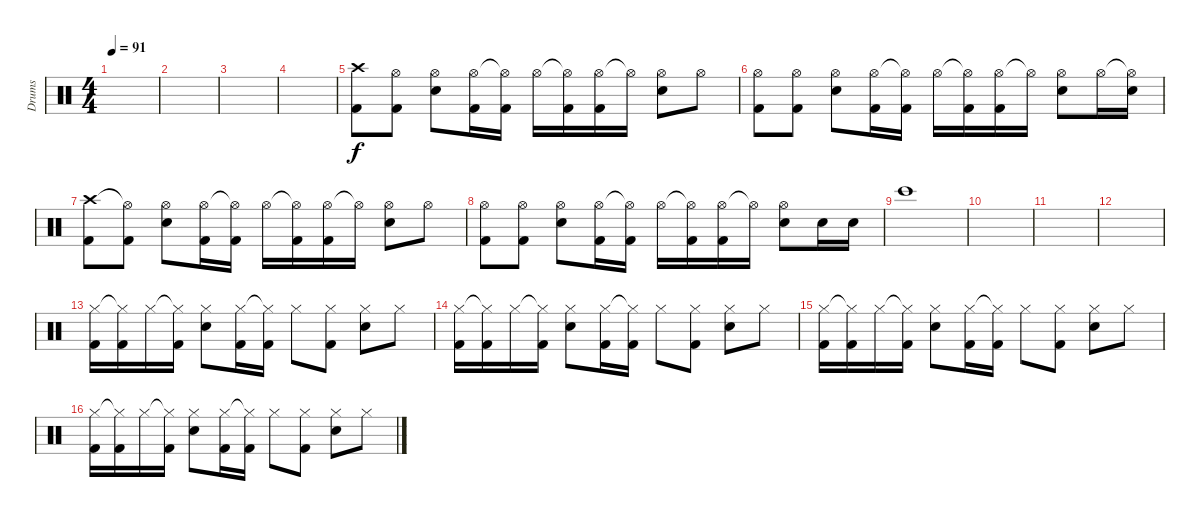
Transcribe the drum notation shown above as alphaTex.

\track ("Drums" "Drums") {instrument percussion}
\staff {score}
\articulation defaults
\ts (4 4)
\tempo 91
\clef neutral
\ks c
|
|
|
|
("Crash high (hit)" "Kick (hit) 2").8 ("Hi-Hat (open)" "Kick (hit) 2").8 ("Hi-Hat (open)" "Electric Snare (hit)").8 ("Hi-Hat (open)" "Kick (hit) 2").16 ("Hi-Hat (open)"{t} "Kick (hit) 2").16 "Hi-Hat (open)".16 ("Hi-Hat (open)"{t} "Kick (hit) 2").16 ("Hi-Hat (open)" "Kick (hit) 2").16 "Hi-Hat (open)"{t}.16 ("Hi-Hat (open)" "Electric Snare (hit)").8 "Hi-Hat (open)".8 |
("Hi-Hat (open)" "Kick (hit) 2").8 ("Hi-Hat (open)" "Kick (hit) 2").8 ("Hi-Hat (open)" "Electric Snare (hit)").8 ("Hi-Hat (open)" "Kick (hit) 2").16 ("Hi-Hat (open)"{t} "Kick (hit) 2").16 "Hi-Hat (open)".16 ("Hi-Hat (open)"{t} "Kick (hit) 2").16 ("Hi-Hat (open)" "Kick (hit) 2").16 "Hi-Hat (open)"{t}.16 ("Hi-Hat (open)" "Electric Snare (hit)").8 "Hi-Hat (open)".16 ("Hi-Hat (open)"{t} "Electric Snare (hit)").16 |
("Crash high (hit)" "Kick (hit) 2").8 ("Hi-Hat (open)"{t} "Kick (hit) 2").8 ("Hi-Hat (open)" "Electric Snare (hit)").8 ("Hi-Hat (open)" "Kick (hit) 2").16 ("Hi-Hat (open)"{t} "Kick (hit) 2").16 "Hi-Hat (open)".16 ("Hi-Hat (open)"{t} "Kick (hit) 2").16 ("Hi-Hat (open)" "Kick (hit) 2").16 "Hi-Hat (open)"{t}.16 ("Hi-Hat (open)" "Electric Snare (hit)").8 "Hi-Hat (open)".8 |
("Hi-Hat (open)" "Kick (hit) 2").8 ("Hi-Hat (open)" "Kick (hit) 2").8 ("Hi-Hat (open)" "Electric Snare (hit)").8 ("Hi-Hat (open)" "Kick (hit) 2").16 ("Hi-Hat (open)"{t} "Kick (hit) 2").16 "Hi-Hat (open)".16 ("Hi-Hat (open)"{t} "Kick (hit) 2").16 ("Hi-Hat (open)" "Kick (hit) 2").16 "Hi-Hat (open)"{t}.16 ("Hi-Hat (open)" "Electric Snare (hit)").8 "Electric Snare (hit)".16 "Electric Snare (hit)".16 |
"Bongo High (hit)".1 |
|
|
|
("Hi-Hat (closed)" "Kick (hit) 2").16 ("Hi-Hat (closed)"{t} "Kick (hit) 2").16 "Hi-Hat (closed)".16 ("Hi-Hat (closed)"{t} "Kick (hit) 2").16 ("Hi-Hat (closed)" "Electric Snare (hit)").8 ("Hi-Hat (closed)" "Kick (hit) 2").16 ("Hi-Hat (closed)"{t} "Kick (hit) 2").16 "Hi-Hat (closed)".8 ("Hi-Hat (closed)" "Kick (hit) 2").8 ("Hi-Hat (closed)" "Electric Snare (hit)").8 "Hi-Hat (closed)".8 |
("Hi-Hat (closed)" "Kick (hit) 2").16 ("Hi-Hat (closed)"{t} "Kick (hit) 2").16 "Hi-Hat (closed)".16 ("Hi-Hat (closed)"{t} "Kick (hit) 2").16 ("Hi-Hat (closed)" "Electric Snare (hit)").8 ("Hi-Hat (closed)" "Kick (hit) 2").16 ("Hi-Hat (closed)"{t} "Kick (hit) 2").16 "Hi-Hat (closed)".8 ("Hi-Hat (closed)" "Kick (hit) 2").8 ("Hi-Hat (closed)" "Electric Snare (hit)").8 "Hi-Hat (closed)".8 |
("Hi-Hat (closed)" "Kick (hit) 2").16 ("Hi-Hat (closed)"{t} "Kick (hit) 2").16 "Hi-Hat (closed)".16 ("Hi-Hat (closed)"{t} "Kick (hit) 2").16 ("Hi-Hat (closed)" "Electric Snare (hit)").8 ("Hi-Hat (closed)" "Kick (hit) 2").16 ("Hi-Hat (closed)"{t} "Kick (hit) 2").16 "Hi-Hat (closed)".8 ("Hi-Hat (closed)" "Kick (hit) 2").8 ("Hi-Hat (closed)" "Electric Snare (hit)").8 "Hi-Hat (closed)".8 |
("Hi-Hat (closed)" "Kick (hit) 2").16 ("Hi-Hat (closed)"{t} "Kick (hit) 2").16 "Hi-Hat (closed)".16 ("Hi-Hat (closed)"{t} "Kick (hit) 2").16 ("Hi-Hat (closed)" "Electric Snare (hit)").8 ("Hi-Hat (closed)" "Kick (hit) 2").16 ("Hi-Hat (closed)"{t} "Kick (hit) 2").16 "Hi-Hat (closed)".8 ("Hi-Hat (closed)" "Kick (hit) 2").8 ("Hi-Hat (closed)" "Electric Snare (hit)").8 "Hi-Hat (closed)".8
